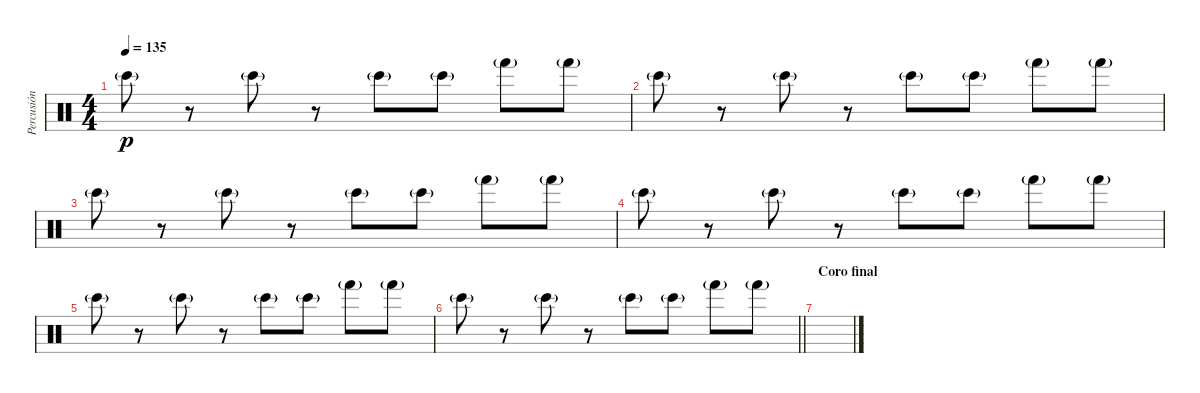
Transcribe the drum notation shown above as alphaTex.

\track ("Percusión" "Percusión") {instrument percussion}
\staff {score}
\articulation defaults
\ts (4 4)
\tempo 135
\clef neutral
\ks c "Bongo High (hit)"{g}.8{dy p}
r.8 "Bongo High (hit)"{g}.8 r.8 "Bongo High (hit)"{g}.8 "Bongo High (hit)"{g}.8 "Hand (hit)"{g}.8 "Hand (hit)"{g}.8 |
"Bongo High (hit)"{g}.8 r.8 "Bongo High (hit)"{g}.8 r.8 "Bongo High (hit)"{g}.8 "Bongo High (hit)"{g}.8 "Hand (hit)"{g}.8 "Hand (hit)"{g}.8 |
"Bongo High (hit)"{g}.8 r.8 "Bongo High (hit)"{g}.8 r.8 "Bongo High (hit)"{g}.8 "Bongo High (hit)"{g}.8 "Hand (hit)"{g}.8 "Hand (hit)"{g}.8 |
"Bongo High (hit)"{g}.8 r.8 "Bongo High (hit)"{g}.8 r.8 "Bongo High (hit)"{g}.8 "Bongo High (hit)"{g}.8 "Hand (hit)"{g}.8 "Hand (hit)"{g}.8 |
"Bongo High (hit)"{g}.8 r.8 "Bongo High (hit)"{g}.8 r.8 "Bongo High (hit)"{g}.8 "Bongo High (hit)"{g}.8 "Hand (hit)"{g}.8 "Hand (hit)"{g}.8 |
\barLineRight lightlight "Bongo High (hit)"{g}.8
r.8 "Bongo High (hit)"{g}.8 r.8 "Bongo High (hit)"{g}.8 "Bongo High (hit)"{g}.8 "Hand (hit)"{g}.8 "Hand (hit)"{g}.8 |
\section ("" "Coro final")
